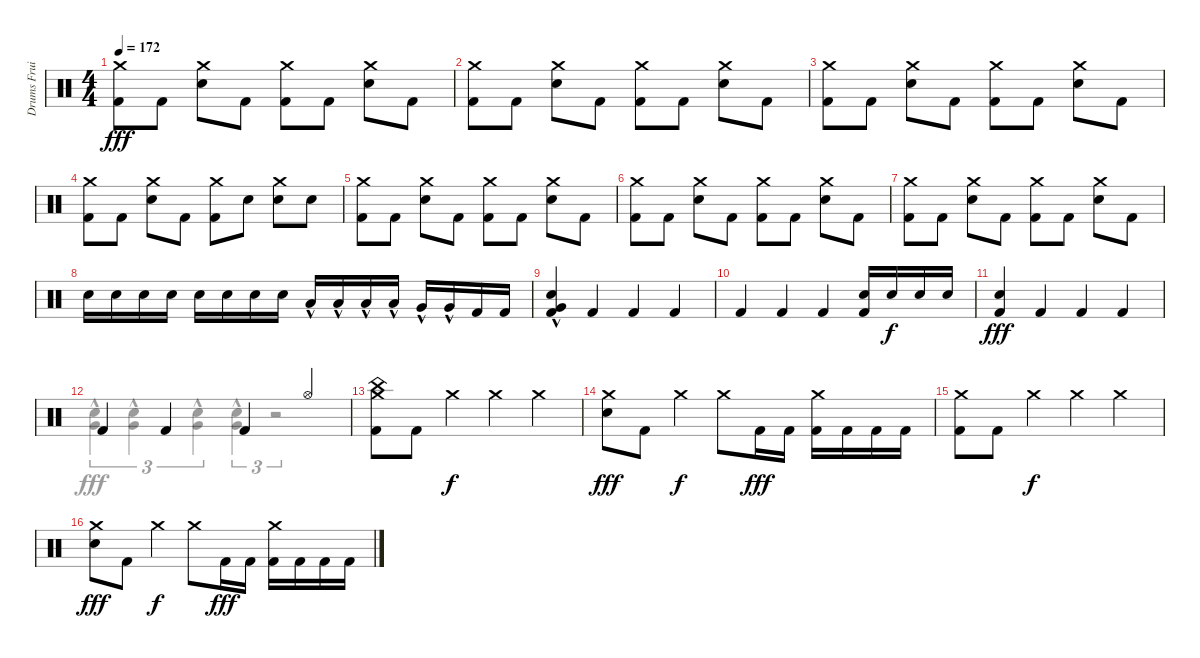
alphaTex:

\track ("Drums Fruity Lexia" "Drums Frui") {instrument percussion}
\staff {score}
\articulation defaults
\voice
\ts (4 4)
\tempo 172
\clef neutral
\ks c
("Crash medium (hit)" "Kick (hit) 2").8{dy fff} "Kick (hit) 2".8 ("Crash medium (hit)" "Electric Snare (hit)").8 "Kick (hit) 2".8 ("Crash medium (hit)" "Kick (hit) 2").8 "Kick (hit) 2".8 ("Crash medium (hit)" "Electric Snare (hit)").8 "Kick (hit) 2".8 |
("Crash medium (hit)" "Kick (hit) 2").8 "Kick (hit) 2".8 ("Crash medium (hit)" "Electric Snare (hit)").8 "Kick (hit) 2".8 ("Crash medium (hit)" "Kick (hit) 2").8 "Kick (hit) 2".8 ("Crash medium (hit)" "Electric Snare (hit)").8 "Kick (hit) 2".8 |
("Crash medium (hit)" "Kick (hit) 2").8 "Kick (hit) 2".8 ("Crash medium (hit)" "Electric Snare (hit)").8 "Kick (hit) 2".8 ("Crash medium (hit)" "Kick (hit) 2").8 "Kick (hit) 2".8 ("Crash medium (hit)" "Electric Snare (hit)").8 "Kick (hit) 2".8 |
("Crash medium (hit)" "Kick (hit) 2").8 "Kick (hit) 2".8 ("Crash medium (hit)" "Electric Snare (hit)").8 "Kick (hit) 2".8 ("Crash medium (hit)" "Kick (hit) 2").8 "Electric Snare (hit)".8 ("Crash medium (hit)" "Electric Snare (hit)").8 "Electric Snare (hit)".8 |
("Crash medium (hit)" "Kick (hit) 2").8 "Kick (hit) 2".8 ("Crash medium (hit)" "Electric Snare (hit)").8 "Kick (hit) 2".8 ("Crash medium (hit)" "Kick (hit) 2").8 "Kick (hit) 2".8 ("Crash medium (hit)" "Electric Snare (hit)").8 "Kick (hit) 2".8 |
("Crash medium (hit)" "Kick (hit) 2").8 "Kick (hit) 2".8 ("Crash medium (hit)" "Electric Snare (hit)").8 "Kick (hit) 2".8 ("Crash medium (hit)" "Kick (hit) 2").8 "Kick (hit) 2".8 ("Crash medium (hit)" "Electric Snare (hit)").8 "Kick (hit) 2".8 |
("Crash medium (hit)" "Kick (hit) 2").8 "Kick (hit) 2".8 ("Crash medium (hit)" "Electric Snare (hit)").8 "Kick (hit) 2".8 ("Crash medium (hit)" "Kick (hit) 2").8 "Kick (hit) 2".8 ("Crash medium (hit)" "Electric Snare (hit)").8 "Kick (hit) 2".8 |
"Electric Snare (hit)".16 "Electric Snare (hit)".16 "Electric Snare (hit)".16 "Electric Snare (hit)".16 "Electric Snare (hit)".16 "Electric Snare (hit)".16 "Electric Snare (hit)".16 "Electric Snare (hit)".16 "Low Tom (hit)"{hac}.16 "Low Tom (hit)"{hac}.16 "Low Tom (hit)"{hac}.16 "Low Tom (hit)"{hac}.16 "Very Low Tom (hit)"{hac}.16 "Very Low Tom (hit)"{hac}.16 "Kick (hit) 2".16 "Kick (hit) 2".16 |
("Electric Snare (hit)" "Very Low Tom (hit)"{hac} "Kick (hit) 2").4 "Kick (hit) 2".4 "Kick (hit) 2".4 "Kick (hit) 2".4 |
"Kick (hit) 2".4 "Kick (hit) 2".4 "Kick (hit) 2".4 ("Electric Snare (hit)" "Kick (hit) 2").16 "Electric Snare (hit)".16{dy f} "Electric Snare (hit)".16 "Electric Snare (hit)".16 |
("Electric Snare (hit)" "Kick (hit) 2").4{dy fff} "Kick (hit) 2".4 "Kick (hit) 2".4 "Kick (hit) 2".4 |
"Kick (hit) 2".4 "Kick (hit) 2".4 "Kick (hit) 2".4 "Hi-Hat (open)".4 |
("China (hit)" "Crash medium (hit)" "Kick (hit) 2").8 "Kick (hit) 2".8 "Crash medium (hit)".4{dy f} "Crash medium (hit)".4 "Crash medium (hit)".4 |
("Crash medium (hit)" "Electric Snare (hit)").8{dy fff} "Kick (hit) 2".8 "Crash medium (hit)".4{dy f} "Crash medium (hit)".8 "Kick (hit) 2".16{dy fff} "Kick (hit) 2".16 ("Crash medium (hit)" "Kick (hit) 2").16 "Kick (hit) 2".16 "Kick (hit) 2".16 "Kick (hit) 2".16 |
("Crash medium (hit)" "Kick (hit) 2").8 "Kick (hit) 2".8 "Crash medium (hit)".4{dy f} "Crash medium (hit)".4 "Crash medium (hit)".4 |
("Crash medium (hit)" "Electric Snare (hit)").8{dy fff} "Kick (hit) 2".8 "Crash medium (hit)".4{dy f} "Crash medium (hit)".8 "Kick (hit) 2".16{dy fff} "Kick (hit) 2".16 ("Crash medium (hit)" "Kick (hit) 2").16 "Kick (hit) 2".16 "Kick (hit) 2".16 "Kick (hit) 2".16
\voice
\clef neutral
\ottava regular
\simile none
\ks c
|
|
|
|
|
|
|
|
|
|
|
("Electric Snare (hit)" "Very Low Tom (hit)"{hac}).4{tu (3 2)} ("Electric Snare (hit)" "Very Low Tom (hit)"{hac}).4{tu (3 2)} ("Electric Snare (hit)" "Very Low Tom (hit)"{hac}).4{tu (3 2)} ("Electric Snare (hit)" "Very Low Tom (hit)"{hac}).4{tu (3 2)} r.2{tu (3 2)} |
|
|
|
